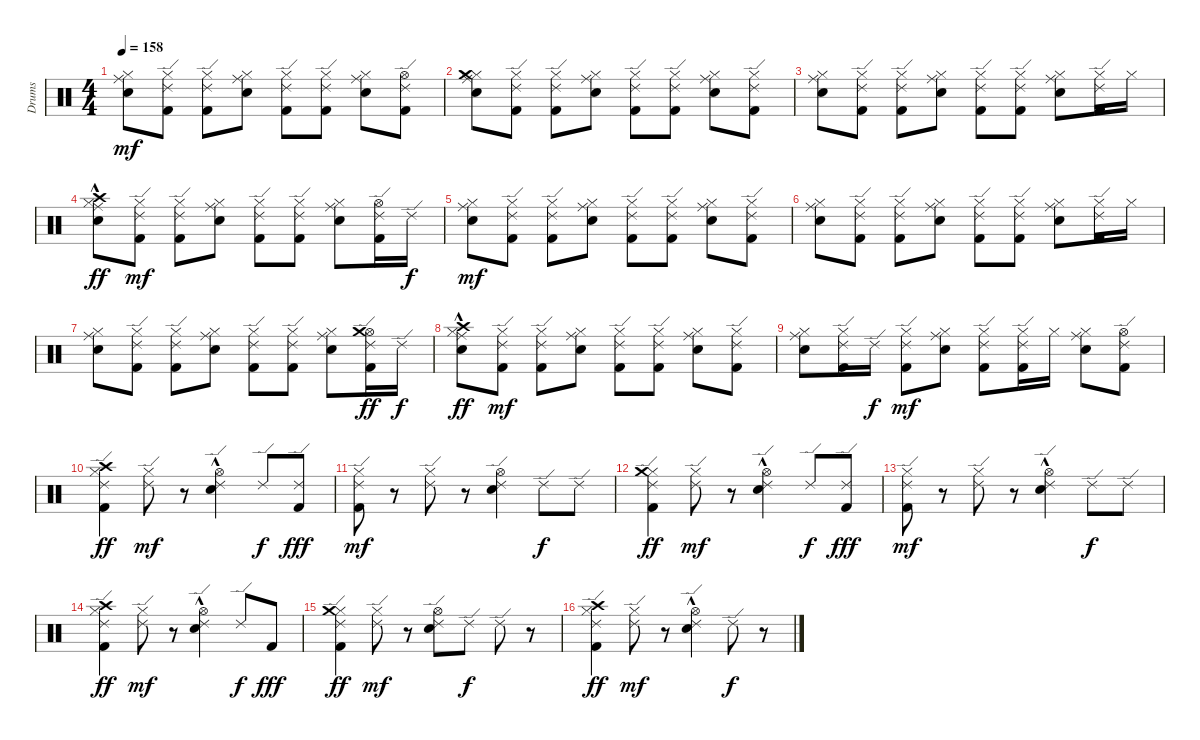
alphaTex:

\track ("Drums" "Drums") {instrument percussion}
\staff {score}
\articulation defaults
\ts (4 4)
\tempo 158
\clef neutral
\ks c
("Snare (hit) 2" "Hi-Hat (closed)" "Ride (middle)").8{dy mf} ("Kick (hit) 2" "Hi-Hat (closed)" "Ride (edge) 2").8 ("Kick (hit) 2" "Hi-Hat (closed)" "Ride (edge) 2").8 ("Snare (hit) 2" "Hi-Hat (closed)" "Ride (middle)").8 ("Kick (hit) 2" "Hi-Hat (closed)" "Ride (edge) 2").8 ("Kick (hit) 2" "Hi-Hat (closed)" "Ride (edge) 2").8 ("Snare (hit) 2" "Hi-Hat (closed)" "Ride (middle)").8 ("Kick (hit) 2" "Hi-Hat (open)" "Ride (edge) 2").8 |
("Snare (hit) 2" "Hi-Hat (closed)" "Ride (middle)" "Crash medium (hit)").8 ("Kick (hit) 2" "Hi-Hat (closed)" "Ride (edge) 2").8 ("Kick (hit) 2" "Hi-Hat (closed)" "Ride (edge) 2").8 ("Snare (hit) 2" "Hi-Hat (closed)" "Ride (middle)").8 ("Kick (hit) 2" "Hi-Hat (closed)" "Ride (edge) 2").8 ("Kick (hit) 2" "Hi-Hat (closed)" "Ride (edge) 2").8 ("Snare (hit) 2" "Hi-Hat (closed)" "Ride (middle)").8 ("Kick (hit) 2" "Hi-Hat (closed)" "Ride (edge) 2").8 |
("Snare (hit) 2" "Hi-Hat (closed)" "Ride (middle)").8 ("Kick (hit) 2" "Hi-Hat (closed)" "Ride (edge) 2").8 ("Kick (hit) 2" "Hi-Hat (closed)" "Ride (edge) 2").8 ("Snare (hit) 2" "Hi-Hat (closed)" "Ride (middle)").8 ("Kick (hit) 2" "Hi-Hat (closed)" "Ride (edge) 2").8 ("Kick (hit) 2" "Hi-Hat (closed)" "Ride (edge) 2").8 ("Snare (hit) 2" "Hi-Hat (closed)" "Ride (middle)").8 ("Kick (hit) 2" "Hi-Hat (closed)" "Ride (edge) 2").16 "Hi-Hat (closed)".16 |
("Snare (hit) 2" "Hi-Hat (closed)" "Ride (middle)" "Crash high (hit)"{hac}).8{dy ff} ("Kick (hit) 2" "Hi-Hat (closed)" "Ride (edge) 2").8{dy mf} ("Kick (hit) 2" "Hi-Hat (closed)" "Ride (edge) 2").8 ("Snare (hit) 2" "Hi-Hat (closed)" "Ride (middle)").8 ("Kick (hit) 2" "Hi-Hat (closed)" "Ride (edge) 2").8 ("Kick (hit) 2" "Hi-Hat (closed)" "Ride (edge) 2").8 ("Snare (hit) 2" "Hi-Hat (closed)" "Ride (middle)").8 ("Kick (hit) 2" "Hi-Hat (open)" "Ride (edge) 2").16 "Ride (edge) 2".16{dy f} |
("Snare (hit) 2" "Hi-Hat (closed)" "Ride (middle)").8{dy mf} ("Kick (hit) 2" "Hi-Hat (closed)" "Ride (edge) 2").8 ("Kick (hit) 2" "Hi-Hat (closed)" "Ride (edge) 2").8 ("Snare (hit) 2" "Hi-Hat (closed)" "Ride (middle)").8 ("Kick (hit) 2" "Hi-Hat (closed)" "Ride (edge) 2").8 ("Kick (hit) 2" "Hi-Hat (closed)" "Ride (edge) 2").8 ("Snare (hit) 2" "Hi-Hat (closed)" "Ride (middle)").8 ("Kick (hit) 2" "Hi-Hat (closed)" "Ride (edge) 2").8 |
("Snare (hit) 2" "Hi-Hat (closed)" "Ride (middle)").8 ("Kick (hit) 2" "Hi-Hat (closed)" "Ride (edge) 2").8 ("Kick (hit) 2" "Hi-Hat (closed)" "Ride (edge) 2").8 ("Snare (hit) 2" "Hi-Hat (closed)" "Ride (middle)").8 ("Kick (hit) 2" "Hi-Hat (closed)" "Ride (edge) 2").8 ("Kick (hit) 2" "Hi-Hat (closed)" "Ride (edge) 2").8 ("Snare (hit) 2" "Hi-Hat (closed)" "Ride (middle)").8 ("Kick (hit) 2" "Hi-Hat (closed)" "Ride (edge) 2").16 "Hi-Hat (closed)".16 |
("Snare (hit) 2" "Hi-Hat (closed)" "Ride (middle)").8 ("Kick (hit) 2" "Hi-Hat (closed)" "Ride (edge) 2").8 ("Kick (hit) 2" "Hi-Hat (closed)" "Ride (edge) 2").8 ("Snare (hit) 2" "Hi-Hat (closed)" "Ride (middle)").8 ("Kick (hit) 2" "Hi-Hat (closed)" "Ride (edge) 2").8 ("Kick (hit) 2" "Hi-Hat (closed)" "Ride (edge) 2").8 ("Snare (hit) 2" "Hi-Hat (closed)" "Ride (middle)").8 ("Kick (hit) 2" "Hi-Hat (open)" "Ride (edge) 2" "Crash medium (hit)").16{dy ff} "Ride (edge) 2".16{dy f} |
("Snare (hit) 2" "Hi-Hat (closed)" "Ride (middle)" "Crash high (hit)"{hac}).8{dy ff} ("Kick (hit) 2" "Hi-Hat (closed)" "Ride (edge) 2").8{dy mf} ("Kick (hit) 2" "Hi-Hat (closed)" "Ride (edge) 2").8 ("Snare (hit) 2" "Hi-Hat (closed)" "Ride (middle)").8 ("Kick (hit) 2" "Hi-Hat (closed)" "Ride (edge) 2").8 ("Kick (hit) 2" "Hi-Hat (closed)" "Ride (edge) 2").8 ("Snare (hit) 2" "Hi-Hat (closed)" "Ride (middle)").8 ("Kick (hit) 2" "Hi-Hat (closed)" "Ride (edge) 2").8 |
("Snare (hit) 2" "Hi-Hat (closed)" "Ride (middle)").8 ("Kick (hit) 2" "Hi-Hat (closed)" "Ride (edge) 2").16 "Ride (edge) 2".16{dy f} ("Kick (hit) 2" "Hi-Hat (closed)" "Ride (edge) 2").8{dy mf} ("Snare (hit) 2" "Hi-Hat (closed)" "Ride (middle)").8 ("Kick (hit) 2" "Hi-Hat (closed)" "Ride (edge) 2").8 ("Kick (hit) 2" "Hi-Hat (closed)" "Ride (edge) 2").16 "Hi-Hat (closed)".16 ("Snare (hit) 2" "Hi-Hat (closed)" "Ride (middle)").8 ("Kick (hit) 2" "Hi-Hat (open)" "Ride (edge) 2").8 |
("Kick (hit) 2" "Hi-Hat (closed)" "Ride (edge) 2" "Crash high (hit)").4{dy ff} ("Hi-Hat (closed)" "Ride (edge) 2").8{dy mf} r.8 ("Snare (hit) 2" "Hi-Hat (open)"{hac} "Ride (edge) 2").4 "Ride (edge) 2".8{dy f} ("Kick (hit) 2" "Ride (edge) 2").8{dy fff} |
("Kick (hit) 2" "Hi-Hat (closed)" "Ride (edge) 2").8{dy mf} r.8 ("Hi-Hat (closed)" "Ride (edge) 2").8 r.8 ("Snare (hit) 2" "Hi-Hat (open)" "Ride (edge) 2").4 "Ride (edge) 2".8{dy f} "Ride (edge) 2".8 |
("Kick (hit) 2" "Hi-Hat (closed)" "Ride (edge) 2" "Crash medium (hit)").4{dy ff} ("Hi-Hat (closed)" "Ride (edge) 2").8{dy mf} r.8 ("Snare (hit) 2" "Hi-Hat (open)"{hac} "Ride (edge) 2").4 "Ride (edge) 2".8{dy f} ("Kick (hit) 2" "Ride (edge) 2").8{dy fff} |
("Kick (hit) 2" "Hi-Hat (closed)" "Ride (edge) 2").8{dy mf} r.8 ("Hi-Hat (closed)" "Ride (edge) 2").8 r.8 ("Snare (hit) 2" "Hi-Hat (open)"{hac} "Ride (edge) 2").4 "Ride (edge) 2".8{dy f} "Ride (edge) 2".8 |
("Kick (hit) 2" "Hi-Hat (closed)" "Ride (edge) 2" "Crash high (hit)").4{dy ff} ("Hi-Hat (closed)" "Ride (edge) 2").8{dy mf} r.8 ("Snare (hit) 2" "Hi-Hat (open)"{hac} "Ride (edge) 2").4 "Ride (edge) 2".8{dy f} "Kick (hit) 2".8{dy fff} |
("Kick (hit) 2" "Hi-Hat (closed)" "Ride (edge) 2" "Crash medium (hit)").4{dy ff} ("Hi-Hat (closed)" "Ride (edge) 2").8{dy mf} r.8 ("Snare (hit) 2" "Hi-Hat (open)" "Ride (edge) 2").8 "Ride (edge) 2".8{dy f} "Ride (edge) 2".8 r.8 |
("Kick (hit) 2" "Hi-Hat (closed)" "Ride (edge) 2" "Crash high (hit)").4{dy ff} ("Hi-Hat (closed)" "Ride (edge) 2").8{dy mf} r.8 ("Snare (hit) 2" "Hi-Hat (open)"{hac} "Ride (edge) 2").4 "Ride (edge) 2".8{dy f} r.8
